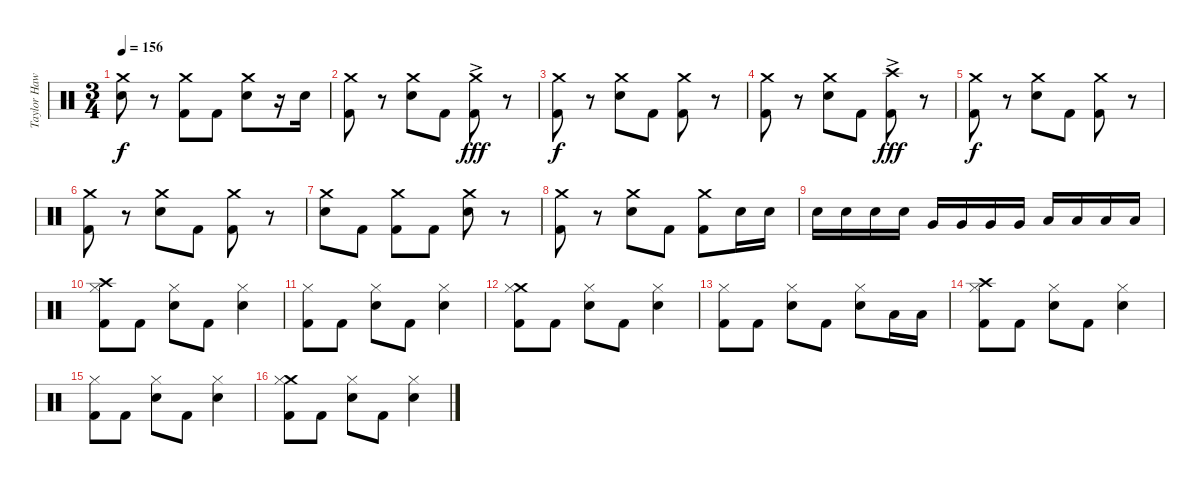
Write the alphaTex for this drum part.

\track ("Taylor Hawkins" "Taylor Haw") {instrument percussion}
\staff {score}
\articulation defaults
\ts (3 4)
\tempo 156
\clef neutral
\ks c
("Crash medium (hit)" "Electric Snare (hit)").8{dy f} r.8 ("Crash medium (hit)" "Kick (hit) 2").8 "Kick (hit) 2".8 ("Crash medium (hit)" "Electric Snare (hit)").8 r.16 "Electric Snare (hit)".16 |
("Crash medium (hit)" "Kick (hit) 2").8 r.8 ("Crash medium (hit)" "Electric Snare (hit)").8 "Kick (hit) 2".8 ("Crash medium (hit)"{ac} "Kick (hit) 2").8{dy fff} r.8 |
("Crash medium (hit)" "Kick (hit) 2").8{dy f} r.8 ("Crash medium (hit)" "Electric Snare (hit)").8 "Kick (hit) 2".8 ("Crash medium (hit)" "Kick (hit) 2").8 r.8 |
("Crash medium (hit)" "Kick (hit) 2").8 r.8 ("Crash medium (hit)" "Electric Snare (hit)").8 "Kick (hit) 2".8 ("Crash high (hit)"{ac} "Kick (hit) 2").8{dy fff} r.8 |
("Crash medium (hit)" "Kick (hit) 2").8{dy f} r.8 ("Crash medium (hit)" "Electric Snare (hit)").8 "Kick (hit) 2".8 ("Crash medium (hit)" "Kick (hit) 2").8 r.8 |
("Crash medium (hit)" "Kick (hit) 2").8 r.8 ("Crash medium (hit)" "Electric Snare (hit)").8 "Kick (hit) 2".8 ("Crash medium (hit)" "Kick (hit) 2").8 r.8 |
("Crash medium (hit)" "Electric Snare (hit)").8 "Kick (hit) 2".8 ("Crash medium (hit)" "Kick (hit) 2").8 "Kick (hit) 2".8 ("Crash medium (hit)" "Electric Snare (hit)").8 r.8 |
("Crash medium (hit)" "Kick (hit) 2").8 r.8 ("Crash medium (hit)" "Electric Snare (hit)").8 "Kick (hit) 2".8 ("Crash medium (hit)" "Kick (hit) 2").8 "Electric Snare (hit)".16 "Electric Snare (hit)".16 |
"Electric Snare (hit)".16 "Electric Snare (hit)".16 "Electric Snare (hit)".16 "Electric Snare (hit)".16 "Very Low Tom (hit)".16 "Very Low Tom (hit)".16 "Very Low Tom (hit)".16 "Very Low Tom (hit)".16 "Low Floor Tom (hit)".16 "Low Floor Tom (hit)".16 "Low Floor Tom (hit)".16 "Low Floor Tom (hit)".16 |
("Crash high (hit)" "Hi-Hat (closed)" "Kick (hit) 2").8 "Kick (hit) 2".8 ("Electric Snare (hit)" "Hi-Hat (closed)").8 "Kick (hit) 2".8 ("Electric Snare (hit)" "Hi-Hat (closed)").4 |
("Hi-Hat (closed)" "Kick (hit) 2").8 "Kick (hit) 2".8 ("Electric Snare (hit)" "Hi-Hat (closed)").8 "Kick (hit) 2".8 ("Electric Snare (hit)" "Hi-Hat (closed)").4 |
("Crash medium (hit)" "Hi-Hat (closed)" "Kick (hit) 2").8 "Kick (hit) 2".8 ("Electric Snare (hit)" "Hi-Hat (closed)").8 "Kick (hit) 2".8 ("Electric Snare (hit)" "Hi-Hat (closed)").4 |
("Hi-Hat (closed)" "Kick (hit) 2").8 "Kick (hit) 2".8 ("Electric Snare (hit)" "Hi-Hat (closed)").8 "Kick (hit) 2".8 ("Electric Snare (hit)" "Hi-Hat (closed)").8 "Low Tom (hit)".16 "Low Tom (hit)".16 |
("Crash high (hit)" "Hi-Hat (closed)" "Kick (hit) 2").8 "Kick (hit) 2".8 ("Electric Snare (hit)" "Hi-Hat (closed)").8 "Kick (hit) 2".8 ("Electric Snare (hit)" "Hi-Hat (closed)").4 |
("Hi-Hat (closed)" "Kick (hit) 2").8 "Kick (hit) 2".8 ("Electric Snare (hit)" "Hi-Hat (closed)").8 "Kick (hit) 2".8 ("Electric Snare (hit)" "Hi-Hat (closed)").4 |
("Crash medium (hit)" "Hi-Hat (closed)" "Kick (hit) 2").8 "Kick (hit) 2".8 ("Electric Snare (hit)" "Hi-Hat (closed)").8 "Kick (hit) 2".8 ("Electric Snare (hit)" "Hi-Hat (closed)").4
